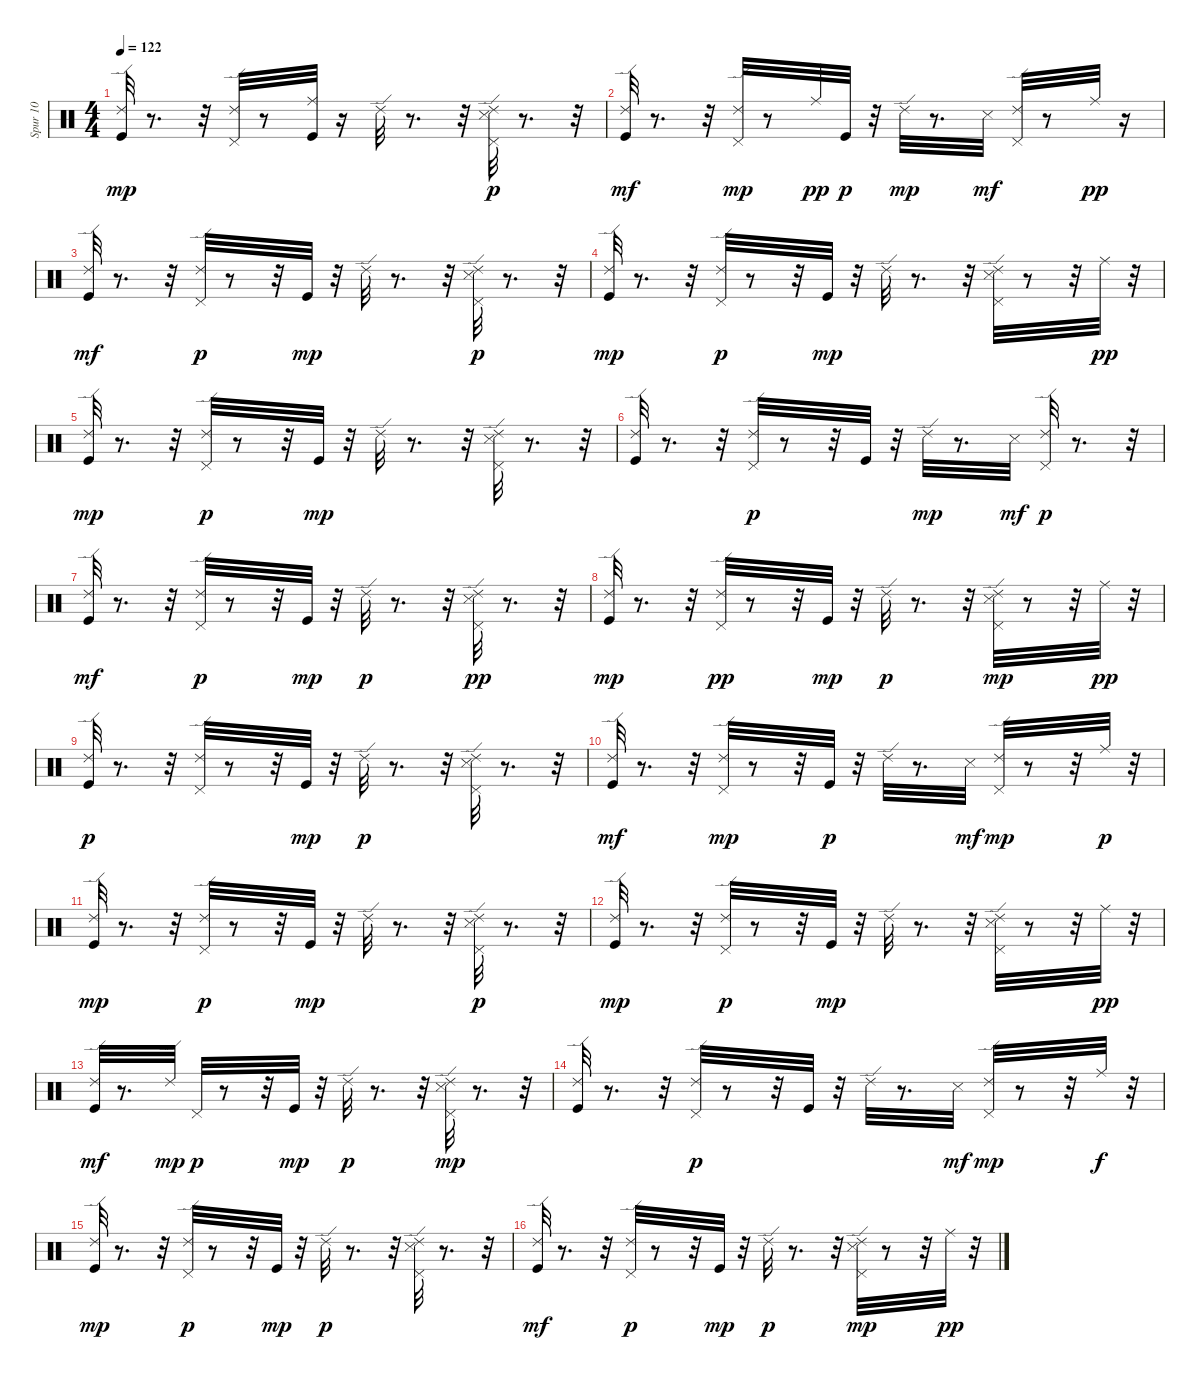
\track ("Spur 10" "Spur 10") {instrument percussion}
\staff {score}
\articulation defaults
\ts (4 4)
\tempo 122
\clef neutral
\ks c
("Kick (hit)" "Ride (edge) 2").32{dy mp} r.8{d} r.32 ("Pedal Hi-Hat (hit)" "Ride (edge) 2").32 r.8 ("Ride (middle)" "Kick (hit)").32 r.16 "Ride (edge) 2".32 r.8{d} r.32 ("Pedal Hi-Hat (hit)" "Snare (side stick) 3" "Ride (edge) 2").32{dy p} r.8{d} r.32 |
("Ride (edge) 2" "Kick (hit)").32{dy mf} r.8{d} r.32 ("Pedal Hi-Hat (hit)" "Ride (edge) 2").32{dy mp} r.8 "Ride (middle)".32{dy pp} "Kick (hit)".32{dy p} r.32 "Ride (edge) 2".32{dy mp} r.8{d} "Snare (side stick) 3".32{dy mf} ("Pedal Hi-Hat (hit)" "Ride (edge) 2").32 r.8 "Ride (middle)".32{dy pp} r.16 |
("Kick (hit)" "Ride (edge) 2").32{dy mf} r.8{d} r.32 ("Pedal Hi-Hat (hit)" "Ride (edge) 2").32{dy p} r.8 r.32 "Kick (hit)".32{dy mp} r.32 "Ride (edge) 2".32 r.8{d} r.32 ("Snare (side stick) 3" "Pedal Hi-Hat (hit)" "Ride (edge) 2").32{dy p} r.8{d} r.32 |
("Kick (hit)" "Ride (edge) 2").32{dy mp} r.8{d} r.32 ("Pedal Hi-Hat (hit)" "Ride (edge) 2").32{dy p} r.8 r.32 "Kick (hit)".32{dy mp} r.32 "Ride (edge) 2".32 r.8{d} r.32 ("Snare (side stick) 3" "Pedal Hi-Hat (hit)" "Ride (edge) 2").32 r.8 r.32 "Ride (middle)".32{dy pp} r.32 |
("Kick (hit)" "Ride (edge) 2").32{dy mp} r.8{d} r.32 ("Pedal Hi-Hat (hit)" "Ride (edge) 2").32{dy p} r.8 r.32 "Kick (hit)".32{dy mp} r.32 "Ride (edge) 2".32 r.8{d} r.32 ("Ride (edge) 2" "Pedal Hi-Hat (hit)" "Snare (side stick) 3").32 r.8{d} r.32 |
("Kick (hit)" "Ride (edge) 2").32 r.8{d} r.32 ("Pedal Hi-Hat (hit)" "Ride (edge) 2").32{dy p} r.8 r.32 "Kick (hit)".32 r.32 "Ride (edge) 2".32{dy mp} r.8{d} "Snare (side stick) 3".32{dy mf} ("Pedal Hi-Hat (hit)" "Ride (edge) 2").32{dy p} r.8{d} r.32 |
("Ride (edge) 2" "Kick (hit)").32{dy mf} r.8{d} r.32 ("Pedal Hi-Hat (hit)" "Ride (edge) 2").32{dy p} r.8 r.32 "Kick (hit)".32{dy mp} r.32 "Ride (edge) 2".32{dy p} r.8{d} r.32 ("Snare (side stick) 3" "Pedal Hi-Hat (hit)" "Ride (edge) 2").32{dy pp} r.8{d} r.32 |
("Kick (hit)" "Ride (edge) 2").32{dy mp} r.8{d} r.32 ("Pedal Hi-Hat (hit)" "Ride (edge) 2").32{dy pp} r.8 r.32 "Kick (hit)".32{dy mp} r.32 "Ride (edge) 2".32{dy p} r.8{d} r.32 ("Ride (edge) 2" "Snare (side stick) 3" "Pedal Hi-Hat (hit)").32{dy mp} r.8 r.32 "Ride (middle)".32{dy pp} r.32 |
("Kick (hit)" "Ride (edge) 2").32{dy p} r.8{d} r.32 ("Pedal Hi-Hat (hit)" "Ride (edge) 2").32 r.8 r.32 "Kick (hit)".32{dy mp} r.32 "Ride (edge) 2".32{dy p} r.8{d} r.32 ("Pedal Hi-Hat (hit)" "Snare (side stick) 3" "Ride (edge) 2").32 r.8{d} r.32 |
("Ride (edge) 2" "Kick (hit)").32{dy mf} r.8{d} r.32 ("Ride (edge) 2" "Pedal Hi-Hat (hit)").32{dy mp} r.8 r.32 "Kick (hit)".32{dy p} r.32 "Ride (edge) 2".32 r.8{d} "Snare (side stick) 3".32{dy mf} ("Pedal Hi-Hat (hit)" "Ride (edge) 2").32{dy mp} r.8 r.32 "Ride (middle)".32{dy p} r.32 |
("Kick (hit)" "Ride (edge) 2").32{dy mp} r.8{d} r.32 ("Pedal Hi-Hat (hit)" "Ride (edge) 2").32{dy p} r.8 r.32 "Kick (hit)".32{dy mp} r.32 "Ride (edge) 2".32 r.8{d} r.32 ("Snare (side stick) 3" "Pedal Hi-Hat (hit)" "Ride (edge) 2").32{dy p} r.8{d} r.32 |
("Kick (hit)" "Ride (edge) 2").32{dy mp} r.8{d} r.32 ("Pedal Hi-Hat (hit)" "Ride (edge) 2").32{dy p} r.8 r.32 "Kick (hit)".32{dy mp} r.32 "Ride (edge) 2".32 r.8{d} r.32 ("Snare (side stick) 3" "Pedal Hi-Hat (hit)" "Ride (edge) 2").32 r.8 r.32 "Ride (middle)".32{dy pp} r.32 |
("Ride (edge) 2" "Kick (hit)").32{dy mf} r.8{d} "Ride (edge) 2".32{dy mp} "Pedal Hi-Hat (hit)".32{dy p} r.8 r.32 "Kick (hit)".32{dy mp} r.32 "Ride (edge) 2".32{dy p} r.8{d} r.32 ("Pedal Hi-Hat (hit)" "Snare (side stick) 3" "Ride (edge) 2").32{dy mp} r.8{d} r.32 |
("Kick (hit)" "Ride (edge) 2").32 r.8{d} r.32 ("Pedal Hi-Hat (hit)" "Ride (edge) 2").32{dy p} r.8 r.32 "Kick (hit)".32 r.32 "Ride (edge) 2".32 r.8{d} "Snare (side stick) 3".32{dy mf} ("Pedal Hi-Hat (hit)" "Ride (edge) 2").32{dy mp} r.8 r.32 "Ride (middle)".32{dy f} r.32 |
("Kick (hit)" "Ride (edge) 2").32{dy mp} r.8{d} r.32 ("Pedal Hi-Hat (hit)" "Ride (edge) 2").32{dy p} r.8 r.32 "Kick (hit)".32{dy mp} r.32 "Ride (edge) 2".32{dy p} r.8{d} r.32 ("Snare (side stick) 3" "Pedal Hi-Hat (hit)" "Ride (edge) 2").32 r.8{d} r.32 |
("Ride (edge) 2" "Kick (hit)").32{dy mf} r.8{d} r.32 ("Pedal Hi-Hat (hit)" "Ride (edge) 2").32{dy p} r.8 r.32 "Kick (hit)".32{dy mp} r.32 "Ride (edge) 2".32{dy p} r.8{d} r.32 ("Snare (side stick) 3" "Pedal Hi-Hat (hit)" "Ride (edge) 2").32{dy mp} r.8 r.32 "Ride (middle)".32{dy pp} r.32
